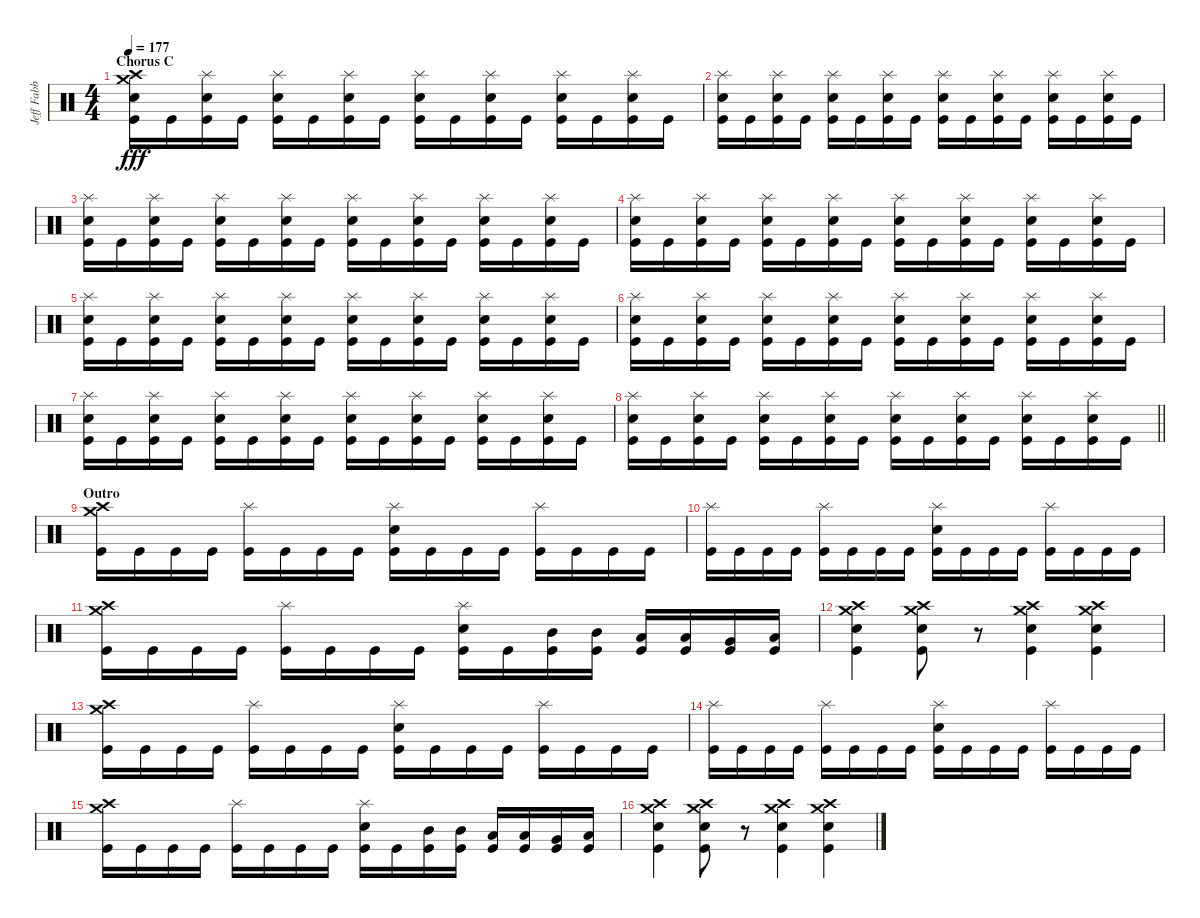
\track ("Jeff Fabb (Drums)" "Jeff Fabb ") {instrument percussion}
\staff {score}
\articulation defaults
\ts (4 4)
\section ("" "Chorus C")
\tempo 177
\clef neutral
\ks c
("Crash high (hit)" "Crash medium (hit)" "Electric Snare (hit)" "Kick (hit)").16{dy fff} "Kick (hit)".16 ("Splash (hit)" "Electric Snare (hit)" "Kick (hit)").16 "Kick (hit)".16 ("Splash (hit)" "Electric Snare (hit)" "Kick (hit)").16 "Kick (hit)".16 ("Splash (hit)" "Electric Snare (hit)" "Kick (hit)").16 "Kick (hit)".16 ("Splash (hit)" "Electric Snare (hit)" "Kick (hit)").16 "Kick (hit)".16 ("Splash (hit)" "Electric Snare (hit)" "Kick (hit)").16 "Kick (hit)".16 ("Splash (hit)" "Electric Snare (hit)" "Kick (hit)").16 "Kick (hit)".16 ("Splash (hit)" "Electric Snare (hit)" "Kick (hit)").16 "Kick (hit)".16 |
("Splash (hit)" "Electric Snare (hit)" "Kick (hit)").16 "Kick (hit)".16 ("Splash (hit)" "Electric Snare (hit)" "Kick (hit)").16 "Kick (hit)".16 ("Splash (hit)" "Electric Snare (hit)" "Kick (hit)").16 "Kick (hit)".16 ("Splash (hit)" "Electric Snare (hit)" "Kick (hit)").16 "Kick (hit)".16 ("Splash (hit)" "Electric Snare (hit)" "Kick (hit)").16 "Kick (hit)".16 ("Splash (hit)" "Electric Snare (hit)" "Kick (hit)").16 "Kick (hit)".16 ("Splash (hit)" "Electric Snare (hit)" "Kick (hit)").16 "Kick (hit)".16 ("Splash (hit)" "Electric Snare (hit)" "Kick (hit)").16 "Kick (hit)".16 |
("Splash (hit)" "Electric Snare (hit)" "Kick (hit)").16 "Kick (hit)".16 ("Splash (hit)" "Electric Snare (hit)" "Kick (hit)").16 "Kick (hit)".16 ("Splash (hit)" "Electric Snare (hit)" "Kick (hit)").16 "Kick (hit)".16 ("Splash (hit)" "Electric Snare (hit)" "Kick (hit)").16 "Kick (hit)".16 ("Splash (hit)" "Electric Snare (hit)" "Kick (hit)").16 "Kick (hit)".16 ("Splash (hit)" "Electric Snare (hit)" "Kick (hit)").16 "Kick (hit)".16 ("Splash (hit)" "Electric Snare (hit)" "Kick (hit)").16 "Kick (hit)".16 ("Splash (hit)" "Electric Snare (hit)" "Kick (hit)").16 "Kick (hit)".16 |
("Splash (hit)" "Electric Snare (hit)" "Kick (hit)").16 "Kick (hit)".16 ("Splash (hit)" "Electric Snare (hit)" "Kick (hit)").16 "Kick (hit)".16 ("Splash (hit)" "Electric Snare (hit)" "Kick (hit)").16 "Kick (hit)".16 ("Splash (hit)" "Electric Snare (hit)" "Kick (hit)").16 "Kick (hit)".16 ("Splash (hit)" "Electric Snare (hit)" "Kick (hit)").16 "Kick (hit)".16 ("Splash (hit)" "Electric Snare (hit)" "Kick (hit)").16 "Kick (hit)".16 ("Splash (hit)" "Electric Snare (hit)" "Kick (hit)").16 "Kick (hit)".16 ("Splash (hit)" "Electric Snare (hit)" "Kick (hit)").16 "Kick (hit)".16 |
("Splash (hit)" "Electric Snare (hit)" "Kick (hit)").16 "Kick (hit)".16 ("Splash (hit)" "Electric Snare (hit)" "Kick (hit)").16 "Kick (hit)".16 ("Splash (hit)" "Electric Snare (hit)" "Kick (hit)").16 "Kick (hit)".16 ("Splash (hit)" "Electric Snare (hit)" "Kick (hit)").16 "Kick (hit)".16 ("Splash (hit)" "Electric Snare (hit)" "Kick (hit)").16 "Kick (hit)".16 ("Splash (hit)" "Electric Snare (hit)" "Kick (hit)").16 "Kick (hit)".16 ("Splash (hit)" "Electric Snare (hit)" "Kick (hit)").16 "Kick (hit)".16 ("Splash (hit)" "Electric Snare (hit)" "Kick (hit)").16 "Kick (hit)".16 |
("Splash (hit)" "Electric Snare (hit)" "Kick (hit)").16 "Kick (hit)".16 ("Splash (hit)" "Electric Snare (hit)" "Kick (hit)").16 "Kick (hit)".16 ("Splash (hit)" "Electric Snare (hit)" "Kick (hit)").16 "Kick (hit)".16 ("Splash (hit)" "Electric Snare (hit)" "Kick (hit)").16 "Kick (hit)".16 ("Splash (hit)" "Electric Snare (hit)" "Kick (hit)").16 "Kick (hit)".16 ("Splash (hit)" "Electric Snare (hit)" "Kick (hit)").16 "Kick (hit)".16 ("Splash (hit)" "Electric Snare (hit)" "Kick (hit)").16 "Kick (hit)".16 ("Splash (hit)" "Electric Snare (hit)" "Kick (hit)").16 "Kick (hit)".16 |
("Splash (hit)" "Electric Snare (hit)" "Kick (hit)").16 "Kick (hit)".16 ("Splash (hit)" "Electric Snare (hit)" "Kick (hit)").16 "Kick (hit)".16 ("Splash (hit)" "Electric Snare (hit)" "Kick (hit)").16 "Kick (hit)".16 ("Splash (hit)" "Electric Snare (hit)" "Kick (hit)").16 "Kick (hit)".16 ("Splash (hit)" "Electric Snare (hit)" "Kick (hit)").16 "Kick (hit)".16 ("Splash (hit)" "Electric Snare (hit)" "Kick (hit)").16 "Kick (hit)".16 ("Splash (hit)" "Electric Snare (hit)" "Kick (hit)").16 "Kick (hit)".16 ("Splash (hit)" "Electric Snare (hit)" "Kick (hit)").16 "Kick (hit)".16 |
\barLineRight lightlight
("Splash (hit)" "Electric Snare (hit)" "Kick (hit)").16 "Kick (hit)".16 ("Splash (hit)" "Electric Snare (hit)" "Kick (hit)").16 "Kick (hit)".16 ("Splash (hit)" "Electric Snare (hit)" "Kick (hit)").16 "Kick (hit)".16 ("Splash (hit)" "Electric Snare (hit)" "Kick (hit)").16 "Kick (hit)".16 ("Splash (hit)" "Electric Snare (hit)" "Kick (hit)").16 "Kick (hit)".16 ("Splash (hit)" "Electric Snare (hit)" "Kick (hit)").16 "Kick (hit)".16 ("Splash (hit)" "Electric Snare (hit)" "Kick (hit)").16 "Kick (hit)".16 ("Splash (hit)" "Electric Snare (hit)" "Kick (hit)").16 "Kick (hit)".16 |
\section ("" "Outro")
("Crash high (hit)" "Crash medium (hit)" "Kick (hit)").16 "Kick (hit)".16 "Kick (hit)".16 "Kick (hit)".16 ("Splash (hit)" "Kick (hit)").16 "Kick (hit)".16 "Kick (hit)".16 "Kick (hit)".16 ("Splash (hit)" "Electric Snare (hit)" "Kick (hit)").16 "Kick (hit)".16 "Kick (hit)".16 "Kick (hit)".16 ("Splash (hit)" "Kick (hit)").16 "Kick (hit)".16 "Kick (hit)".16 "Kick (hit)".16 |
("Splash (hit)" "Kick (hit)").16 "Kick (hit)".16 "Kick (hit)".16 "Kick (hit)".16 ("Splash (hit)" "Kick (hit)").16 "Kick (hit)".16 "Kick (hit)".16 "Kick (hit)".16 ("Splash (hit)" "Electric Snare (hit)" "Kick (hit)").16 "Kick (hit)".16 "Kick (hit)".16 "Kick (hit)".16 ("Splash (hit)" "Kick (hit)").16 "Kick (hit)".16 "Kick (hit)".16 "Kick (hit)".16 |
("Crash high (hit)" "Crash medium (hit)" "Kick (hit)").16 "Kick (hit)".16 "Kick (hit)".16 "Kick (hit)".16 ("Splash (hit)" "Kick (hit)").16 "Kick (hit)".16 "Kick (hit)".16 "Kick (hit)".16 ("Splash (hit)" "Electric Snare (hit)" "Kick (hit)").16 "Kick (hit)".16 ("Mid Tom (hit)" "Kick (hit)").16 ("Mid Tom (hit)" "Kick (hit)").16 ("Low Tom (hit)" "Kick (hit)").16 ("Low Tom (hit)" "Kick (hit)").16 ("Very Low Tom (hit)" "Kick (hit)").16 ("Low Floor Tom (hit)" "Kick (hit)").16 |
("Crash high (hit)" "Crash medium (hit)" "Electric Snare (hit)" "Kick (hit)").4 ("Crash high (hit)" "Crash medium (hit)" "Electric Snare (hit)" "Kick (hit)").8 r.8 ("Crash high (hit)" "Crash medium (hit)" "Electric Snare (hit)" "Kick (hit)").4 ("Crash high (hit)" "Crash medium (hit)" "Electric Snare (hit)" "Kick (hit)").4 |
("Crash high (hit)" "Crash medium (hit)" "Kick (hit)").16 "Kick (hit)".16 "Kick (hit)".16 "Kick (hit)".16 ("Splash (hit)" "Kick (hit)").16 "Kick (hit)".16 "Kick (hit)".16 "Kick (hit)".16 ("Splash (hit)" "Electric Snare (hit)" "Kick (hit)").16 "Kick (hit)".16 "Kick (hit)".16 "Kick (hit)".16 ("Splash (hit)" "Kick (hit)").16 "Kick (hit)".16 "Kick (hit)".16 "Kick (hit)".16 |
("Splash (hit)" "Kick (hit)").16 "Kick (hit)".16 "Kick (hit)".16 "Kick (hit)".16 ("Splash (hit)" "Kick (hit)").16 "Kick (hit)".16 "Kick (hit)".16 "Kick (hit)".16 ("Splash (hit)" "Electric Snare (hit)" "Kick (hit)").16 "Kick (hit)".16 "Kick (hit)".16 "Kick (hit)".16 ("Splash (hit)" "Kick (hit)").16 "Kick (hit)".16 "Kick (hit)".16 "Kick (hit)".16 |
("Crash high (hit)" "Crash medium (hit)" "Kick (hit)").16 "Kick (hit)".16 "Kick (hit)".16 "Kick (hit)".16 ("Splash (hit)" "Kick (hit)").16 "Kick (hit)".16 "Kick (hit)".16 "Kick (hit)".16 ("Splash (hit)" "Electric Snare (hit)" "Kick (hit)").16 "Kick (hit)".16 ("Mid Tom (hit)" "Kick (hit)").16 ("Mid Tom (hit)" "Kick (hit)").16 ("Low Tom (hit)" "Kick (hit)").16 ("Low Tom (hit)" "Kick (hit)").16 ("Very Low Tom (hit)" "Kick (hit)").16 ("Low Floor Tom (hit)" "Kick (hit)").16 |
("Crash high (hit)" "Crash medium (hit)" "Electric Snare (hit)" "Kick (hit)").4 ("Crash high (hit)" "Crash medium (hit)" "Electric Snare (hit)" "Kick (hit)").8 r.8 ("Crash high (hit)" "Crash medium (hit)" "Electric Snare (hit)" "Kick (hit)").4 ("Crash high (hit)" "Crash medium (hit)" "Electric Snare (hit)" "Kick (hit)").4
